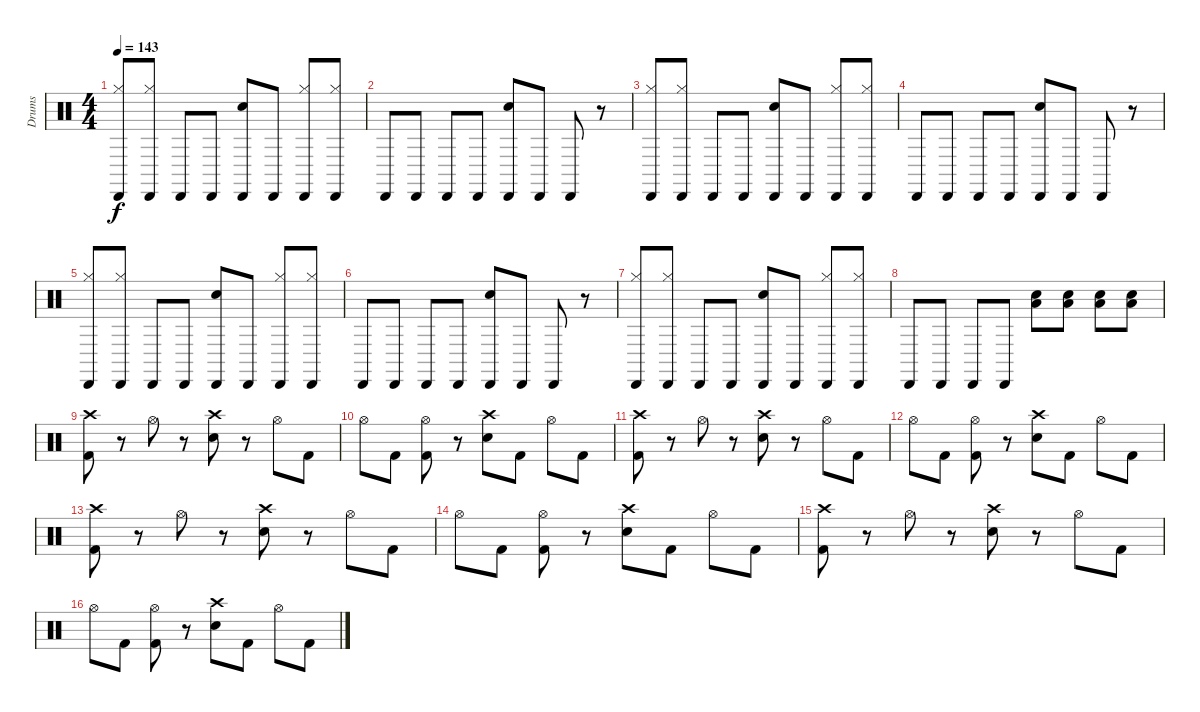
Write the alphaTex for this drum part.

\track ("Drums" "Drums") {instrument percussion}
\staff {score}
\articulation defaults
\ts (4 4)
\tempo 143
\clef neutral
\ks c
("Cabasa (hit)" "Hi-Hat (closed)").8{dy f} ("Cabasa (hit)" "Hi-Hat (closed)").8 "Cabasa (hit)".8 "Cabasa (hit)".8 ("Cabasa (hit)" "Electric Snare (hit)").8 "Cabasa (hit)".8 ("Cabasa (hit)" "Hi-Hat (closed)").8 ("Cabasa (hit)" "Hi-Hat (closed)").8 |
"Cabasa (hit)".8 "Cabasa (hit)".8 "Cabasa (hit)".8 "Cabasa (hit)".8 ("Cabasa (hit)" "Electric Snare (hit)").8 "Cabasa (hit)".8 "Cabasa (hit)".8 r.8 |
("Cabasa (hit)" "Hi-Hat (closed)").8 ("Cabasa (hit)" "Hi-Hat (closed)").8 "Cabasa (hit)".8 "Cabasa (hit)".8 ("Cabasa (hit)" "Electric Snare (hit)").8 "Cabasa (hit)".8 ("Cabasa (hit)" "Hi-Hat (closed)").8 ("Cabasa (hit)" "Hi-Hat (closed)").8 |
"Cabasa (hit)".8 "Cabasa (hit)".8 "Cabasa (hit)".8 "Cabasa (hit)".8 ("Cabasa (hit)" "Electric Snare (hit)").8 "Cabasa (hit)".8 "Cabasa (hit)".8 r.8 |
("Cabasa (hit)" "Hi-Hat (closed)").8 ("Cabasa (hit)" "Hi-Hat (closed)").8 "Cabasa (hit)".8 "Cabasa (hit)".8 ("Cabasa (hit)" "Electric Snare (hit)").8 "Cabasa (hit)".8 ("Cabasa (hit)" "Hi-Hat (closed)").8 ("Cabasa (hit)" "Hi-Hat (closed)").8 |
"Cabasa (hit)".8 "Cabasa (hit)".8 "Cabasa (hit)".8 "Cabasa (hit)".8 ("Cabasa (hit)" "Electric Snare (hit)").8 "Cabasa (hit)".8 "Cabasa (hit)".8 r.8 |
("Cabasa (hit)" "Hi-Hat (closed)").8 ("Cabasa (hit)" "Hi-Hat (closed)").8 "Cabasa (hit)".8 "Cabasa (hit)".8 ("Cabasa (hit)" "Electric Snare (hit)").8 "Cabasa (hit)".8 ("Cabasa (hit)" "Hi-Hat (closed)").8 ("Cabasa (hit)" "Hi-Hat (closed)").8 |
"Cabasa (hit)".8 "Cabasa (hit)".8 "Cabasa (hit)".8 "Cabasa (hit)".8 ("Electric Snare (hit)" "Low Floor Tom (hit)").8 ("Electric Snare (hit)" "Low Floor Tom (hit)").8 ("Electric Snare (hit)" "Low Floor Tom (hit)").8 ("Electric Snare (hit)" "Low Floor Tom (hit)").8 |
("Crash high (hit)" "Kick (hit) 2").8 r.8 "Hi-Hat (open)".8 r.8 ("Crash high (hit)" "Electric Snare (hit)").8 r.8 "Hi-Hat (open)".8 "Kick (hit) 2".8 |
"Hi-Hat (open)".8 "Kick (hit) 2".8 ("Kick (hit) 2" "Hi-Hat (open)").8 r.8 ("Crash high (hit)" "Electric Snare (hit)").8 "Kick (hit) 2".8 "Hi-Hat (open)".8 "Kick (hit) 2".8 |
("Crash high (hit)" "Kick (hit) 2").8 r.8 "Hi-Hat (open)".8 r.8 ("Crash high (hit)" "Electric Snare (hit)").8 r.8 "Hi-Hat (open)".8 "Kick (hit) 2".8 |
"Hi-Hat (open)".8 "Kick (hit) 2".8 ("Kick (hit) 2" "Hi-Hat (open)").8 r.8 ("Crash high (hit)" "Electric Snare (hit)").8 "Kick (hit) 2".8 "Hi-Hat (open)".8 "Kick (hit) 2".8 |
("Crash high (hit)" "Kick (hit) 2").8 r.8 "Hi-Hat (open)".8 r.8 ("Crash high (hit)" "Electric Snare (hit)").8 r.8 "Hi-Hat (open)".8 "Kick (hit) 2".8 |
"Hi-Hat (open)".8 "Kick (hit) 2".8 ("Kick (hit) 2" "Hi-Hat (open)").8 r.8 ("Crash high (hit)" "Electric Snare (hit)").8 "Kick (hit) 2".8 "Hi-Hat (open)".8 "Kick (hit) 2".8 |
("Crash high (hit)" "Kick (hit) 2").8 r.8 "Hi-Hat (open)".8 r.8 ("Crash high (hit)" "Electric Snare (hit)").8 r.8 "Hi-Hat (open)".8 "Kick (hit) 2".8 |
"Hi-Hat (open)".8 "Kick (hit) 2".8 ("Kick (hit) 2" "Hi-Hat (open)").8 r.8 ("Crash high (hit)" "Electric Snare (hit)").8 "Kick (hit) 2".8 "Hi-Hat (open)".8 "Kick (hit) 2".8
